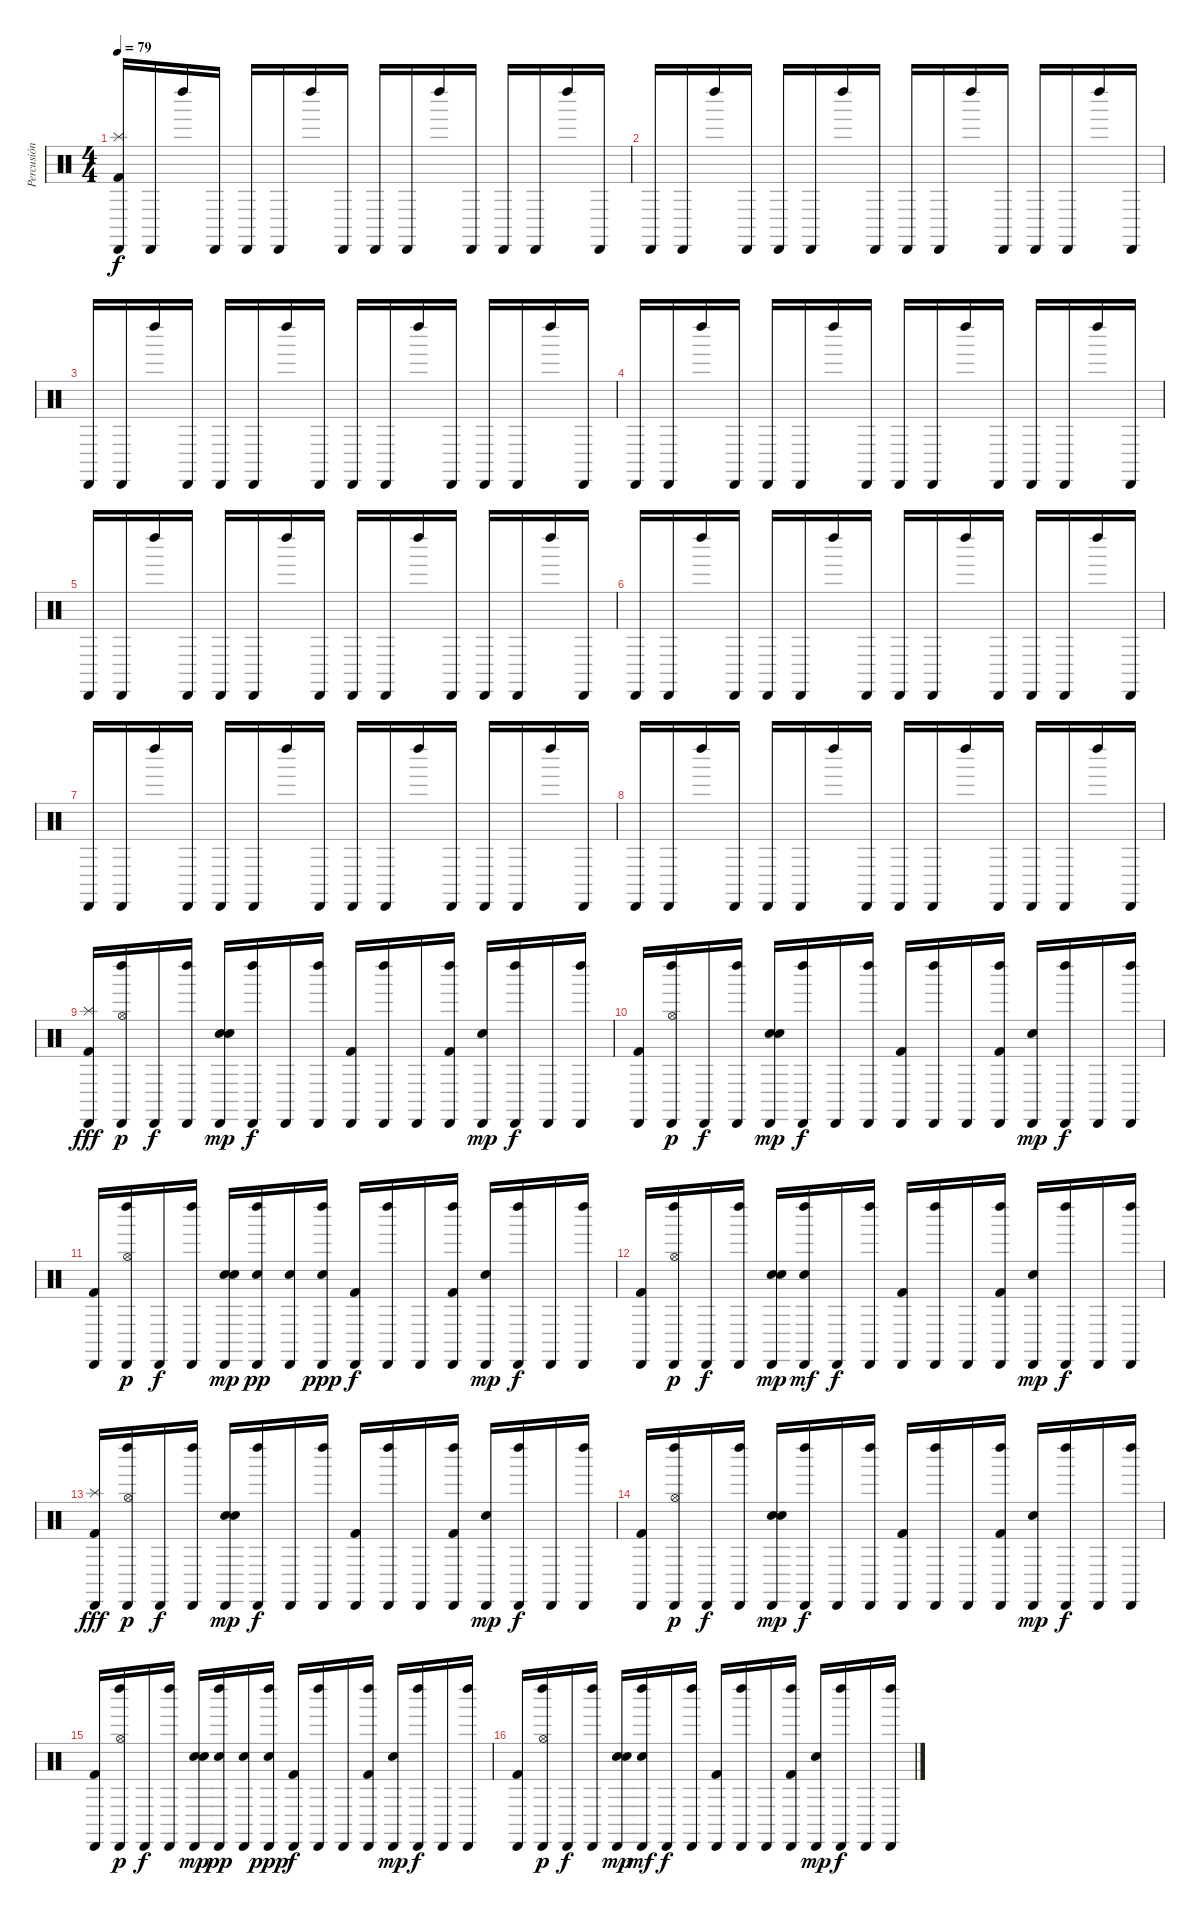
\track ("Percusión" "Percusión") {instrument percussion}
\staff {score}
\articulation defaults
\ts (4 4)
\tempo 79
\clef neutral
\ks c
("Cabasa (hit)" "Splash (hit)" "Kick (hit) 2").16{dy f} "Cabasa (hit)".16 "Left Maraca (hit)".16 "Cabasa (hit)".16 "Cabasa (hit)".16 "Cabasa (hit)".16 "Left Maraca (hit)".16 "Cabasa (hit)".16 "Cabasa (hit)".16 "Cabasa (hit)".16 "Left Maraca (hit)".16 "Cabasa (hit)".16 "Cabasa (hit)".16 "Cabasa (hit)".16 "Left Maraca (hit)".16 "Cabasa (hit)".16 |
"Cabasa (hit)".16 "Cabasa (hit)".16 "Left Maraca (hit)".16 "Cabasa (hit)".16 "Cabasa (hit)".16 "Cabasa (hit)".16 "Left Maraca (hit)".16 "Cabasa (hit)".16 "Cabasa (hit)".16 "Cabasa (hit)".16 "Left Maraca (hit)".16 "Cabasa (hit)".16 "Cabasa (hit)".16 "Cabasa (hit)".16 "Left Maraca (hit)".16 "Cabasa (hit)".16 |
"Cabasa (hit)".16 "Cabasa (hit)".16 "Left Maraca (hit)".16 "Cabasa (hit)".16 "Cabasa (hit)".16 "Cabasa (hit)".16 "Left Maraca (hit)".16 "Cabasa (hit)".16 "Cabasa (hit)".16 "Cabasa (hit)".16 "Left Maraca (hit)".16 "Cabasa (hit)".16 "Cabasa (hit)".16 "Cabasa (hit)".16 "Left Maraca (hit)".16 "Cabasa (hit)".16 |
"Cabasa (hit)".16 "Cabasa (hit)".16 "Left Maraca (hit)".16 "Cabasa (hit)".16 "Cabasa (hit)".16 "Cabasa (hit)".16 "Left Maraca (hit)".16 "Cabasa (hit)".16 "Cabasa (hit)".16 "Cabasa (hit)".16 "Left Maraca (hit)".16 "Cabasa (hit)".16 "Cabasa (hit)".16 "Cabasa (hit)".16 "Left Maraca (hit)".16 "Cabasa (hit)".16 |
"Cabasa (hit)".16 "Cabasa (hit)".16 "Left Maraca (hit)".16 "Cabasa (hit)".16 "Cabasa (hit)".16 "Cabasa (hit)".16 "Left Maraca (hit)".16 "Cabasa (hit)".16 "Cabasa (hit)".16 "Cabasa (hit)".16 "Left Maraca (hit)".16 "Cabasa (hit)".16 "Cabasa (hit)".16 "Cabasa (hit)".16 "Left Maraca (hit)".16 "Cabasa (hit)".16 |
"Cabasa (hit)".16 "Cabasa (hit)".16 "Left Maraca (hit)".16 "Cabasa (hit)".16 "Cabasa (hit)".16 "Cabasa (hit)".16 "Left Maraca (hit)".16 "Cabasa (hit)".16 "Cabasa (hit)".16 "Cabasa (hit)".16 "Left Maraca (hit)".16 "Cabasa (hit)".16 "Cabasa (hit)".16 "Cabasa (hit)".16 "Left Maraca (hit)".16 "Cabasa (hit)".16 |
"Cabasa (hit)".16 "Cabasa (hit)".16 "Left Maraca (hit)".16 "Cabasa (hit)".16 "Cabasa (hit)".16 "Cabasa (hit)".16 "Left Maraca (hit)".16 "Cabasa (hit)".16 "Cabasa (hit)".16 "Cabasa (hit)".16 "Left Maraca (hit)".16 "Cabasa (hit)".16 "Cabasa (hit)".16 "Cabasa (hit)".16 "Left Maraca (hit)".16 "Cabasa (hit)".16 |
"Cabasa (hit)".16 "Cabasa (hit)".16 "Left Maraca (hit)".16 "Cabasa (hit)".16 "Cabasa (hit)".16 "Cabasa (hit)".16 "Left Maraca (hit)".16 "Cabasa (hit)".16 "Cabasa (hit)".16 "Cabasa (hit)".16 "Left Maraca (hit)".16 "Cabasa (hit)".16 "Cabasa (hit)".16 "Cabasa (hit)".16 "Left Maraca (hit)".16 "Cabasa (hit)".16 |
("Cabasa (hit)" "Splash (hit)" "Kick (hit) 2").16{dy fff} ("Cabasa (hit)" "Left Maraca (hit)" "Hi-Hat (open)").16{dy p} "Cabasa (hit)".16{dy f} ("Cabasa (hit)" "Left Maraca (hit)").16 ("Cabasa (hit)" "Electric Snare (hit)" "Snare (hit) 2").16{dy mp} ("Cabasa (hit)" "Left Maraca (hit)").16{dy f} "Cabasa (hit)".16 ("Cabasa (hit)" "Left Maraca (hit)").16 ("Cabasa (hit)" "Kick (hit) 2").16 ("Cabasa (hit)" "Left Maraca (hit)").16 "Cabasa (hit)".16 ("Cabasa (hit)" "Left Maraca (hit)" "Kick (hit) 2").16 ("Cabasa (hit)" "Electric Snare (hit)").16{dy mp} ("Cabasa (hit)" "Left Maraca (hit)").16{dy f} "Cabasa (hit)".16 ("Cabasa (hit)" "Left Maraca (hit)").16 |
("Cabasa (hit)" "Kick (hit) 2").16 ("Cabasa (hit)" "Left Maraca (hit)" "Hi-Hat (open)").16{dy p} "Cabasa (hit)".16{dy f} ("Cabasa (hit)" "Left Maraca (hit)").16 ("Cabasa (hit)" "Electric Snare (hit)" "Snare (hit) 2").16{dy mp} ("Cabasa (hit)" "Left Maraca (hit)").16{dy f} "Cabasa (hit)".16 ("Cabasa (hit)" "Left Maraca (hit)").16 ("Cabasa (hit)" "Kick (hit) 2").16 ("Cabasa (hit)" "Left Maraca (hit)").16 "Cabasa (hit)".16 ("Cabasa (hit)" "Left Maraca (hit)" "Kick (hit) 2").16 ("Cabasa (hit)" "Electric Snare (hit)").16{dy mp} ("Cabasa (hit)" "Left Maraca (hit)").16{dy f} "Cabasa (hit)".16 ("Cabasa (hit)" "Left Maraca (hit)").16 |
("Cabasa (hit)" "Kick (hit) 2").16 ("Cabasa (hit)" "Left Maraca (hit)" "Hi-Hat (open)").16{dy p} "Cabasa (hit)".16{dy f} ("Cabasa (hit)" "Left Maraca (hit)").16 ("Cabasa (hit)" "Electric Snare (hit)" "Snare (hit) 2").16{dy mp} ("Cabasa (hit)" "Left Maraca (hit)" "Electric Snare (hit)").16{dy pp} ("Cabasa (hit)" "Electric Snare (hit)").16 ("Cabasa (hit)" "Left Maraca (hit)" "Electric Snare (hit)").16{dy ppp} ("Cabasa (hit)" "Kick (hit) 2").16{dy f} ("Cabasa (hit)" "Left Maraca (hit)").16 "Cabasa (hit)".16 ("Cabasa (hit)" "Left Maraca (hit)" "Kick (hit) 2").16 ("Cabasa (hit)" "Electric Snare (hit)").16{dy mp} ("Cabasa (hit)" "Left Maraca (hit)").16{dy f} "Cabasa (hit)".16 ("Cabasa (hit)" "Left Maraca (hit)").16 |
("Cabasa (hit)" "Kick (hit) 2").16 ("Cabasa (hit)" "Left Maraca (hit)" "Hi-Hat (open)").16{dy p} "Cabasa (hit)".16{dy f} ("Cabasa (hit)" "Left Maraca (hit)").16 ("Cabasa (hit)" "Electric Snare (hit)" "Snare (hit) 2").16{dy mp} ("Cabasa (hit)" "Left Maraca (hit)" "Electric Snare (hit)").16{dy mf} "Cabasa (hit)".16{dy f} ("Cabasa (hit)" "Left Maraca (hit)").16 ("Cabasa (hit)" "Kick (hit) 2").16 ("Cabasa (hit)" "Left Maraca (hit)").16 "Cabasa (hit)".16 ("Cabasa (hit)" "Left Maraca (hit)" "Kick (hit) 2").16 ("Cabasa (hit)" "Electric Snare (hit)").16{dy mp} ("Cabasa (hit)" "Left Maraca (hit)").16{dy f} "Cabasa (hit)".16 ("Cabasa (hit)" "Left Maraca (hit)").16 |
("Cabasa (hit)" "Splash (hit)" "Kick (hit) 2").16{dy fff} ("Cabasa (hit)" "Left Maraca (hit)" "Hi-Hat (open)").16{dy p} "Cabasa (hit)".16{dy f} ("Cabasa (hit)" "Left Maraca (hit)").16 ("Cabasa (hit)" "Electric Snare (hit)" "Snare (hit) 2").16{dy mp} ("Cabasa (hit)" "Left Maraca (hit)").16{dy f} "Cabasa (hit)".16 ("Cabasa (hit)" "Left Maraca (hit)").16 ("Cabasa (hit)" "Kick (hit) 2").16 ("Cabasa (hit)" "Left Maraca (hit)").16 "Cabasa (hit)".16 ("Cabasa (hit)" "Left Maraca (hit)" "Kick (hit) 2").16 ("Cabasa (hit)" "Electric Snare (hit)").16{dy mp} ("Cabasa (hit)" "Left Maraca (hit)").16{dy f} "Cabasa (hit)".16 ("Cabasa (hit)" "Left Maraca (hit)").16 |
("Cabasa (hit)" "Kick (hit) 2").16 ("Cabasa (hit)" "Left Maraca (hit)" "Hi-Hat (open)").16{dy p} "Cabasa (hit)".16{dy f} ("Cabasa (hit)" "Left Maraca (hit)").16 ("Cabasa (hit)" "Electric Snare (hit)" "Snare (hit) 2").16{dy mp} ("Cabasa (hit)" "Left Maraca (hit)").16{dy f} "Cabasa (hit)".16 ("Cabasa (hit)" "Left Maraca (hit)").16 ("Cabasa (hit)" "Kick (hit) 2").16 ("Cabasa (hit)" "Left Maraca (hit)").16 "Cabasa (hit)".16 ("Cabasa (hit)" "Left Maraca (hit)" "Kick (hit) 2").16 ("Cabasa (hit)" "Electric Snare (hit)").16{dy mp} ("Cabasa (hit)" "Left Maraca (hit)").16{dy f} "Cabasa (hit)".16 ("Cabasa (hit)" "Left Maraca (hit)").16 |
("Cabasa (hit)" "Kick (hit) 2").16 ("Cabasa (hit)" "Left Maraca (hit)" "Hi-Hat (open)").16{dy p} "Cabasa (hit)".16{dy f} ("Cabasa (hit)" "Left Maraca (hit)").16 ("Cabasa (hit)" "Electric Snare (hit)" "Snare (hit) 2").16{dy mp} ("Cabasa (hit)" "Left Maraca (hit)" "Electric Snare (hit)").16{dy pp} ("Cabasa (hit)" "Electric Snare (hit)").16 ("Cabasa (hit)" "Left Maraca (hit)" "Electric Snare (hit)").16{dy ppp} ("Cabasa (hit)" "Kick (hit) 2").16{dy f} ("Cabasa (hit)" "Left Maraca (hit)").16 "Cabasa (hit)".16 ("Cabasa (hit)" "Left Maraca (hit)" "Kick (hit) 2").16 ("Cabasa (hit)" "Electric Snare (hit)").16{dy mp} ("Cabasa (hit)" "Left Maraca (hit)").16{dy f} "Cabasa (hit)".16 ("Cabasa (hit)" "Left Maraca (hit)").16 |
("Cabasa (hit)" "Kick (hit) 2").16 ("Cabasa (hit)" "Left Maraca (hit)" "Hi-Hat (open)").16{dy p} "Cabasa (hit)".16{dy f} ("Cabasa (hit)" "Left Maraca (hit)").16 ("Cabasa (hit)" "Electric Snare (hit)" "Snare (hit) 2").16{dy mp} ("Cabasa (hit)" "Left Maraca (hit)" "Electric Snare (hit)").16{dy mf} "Cabasa (hit)".16{dy f} ("Cabasa (hit)" "Left Maraca (hit)").16 ("Cabasa (hit)" "Kick (hit) 2").16 ("Cabasa (hit)" "Left Maraca (hit)").16 "Cabasa (hit)".16 ("Cabasa (hit)" "Left Maraca (hit)" "Kick (hit) 2").16 ("Cabasa (hit)" "Electric Snare (hit)").16{dy mp} ("Cabasa (hit)" "Left Maraca (hit)").16{dy f} "Cabasa (hit)".16 ("Cabasa (hit)" "Left Maraca (hit)").16
